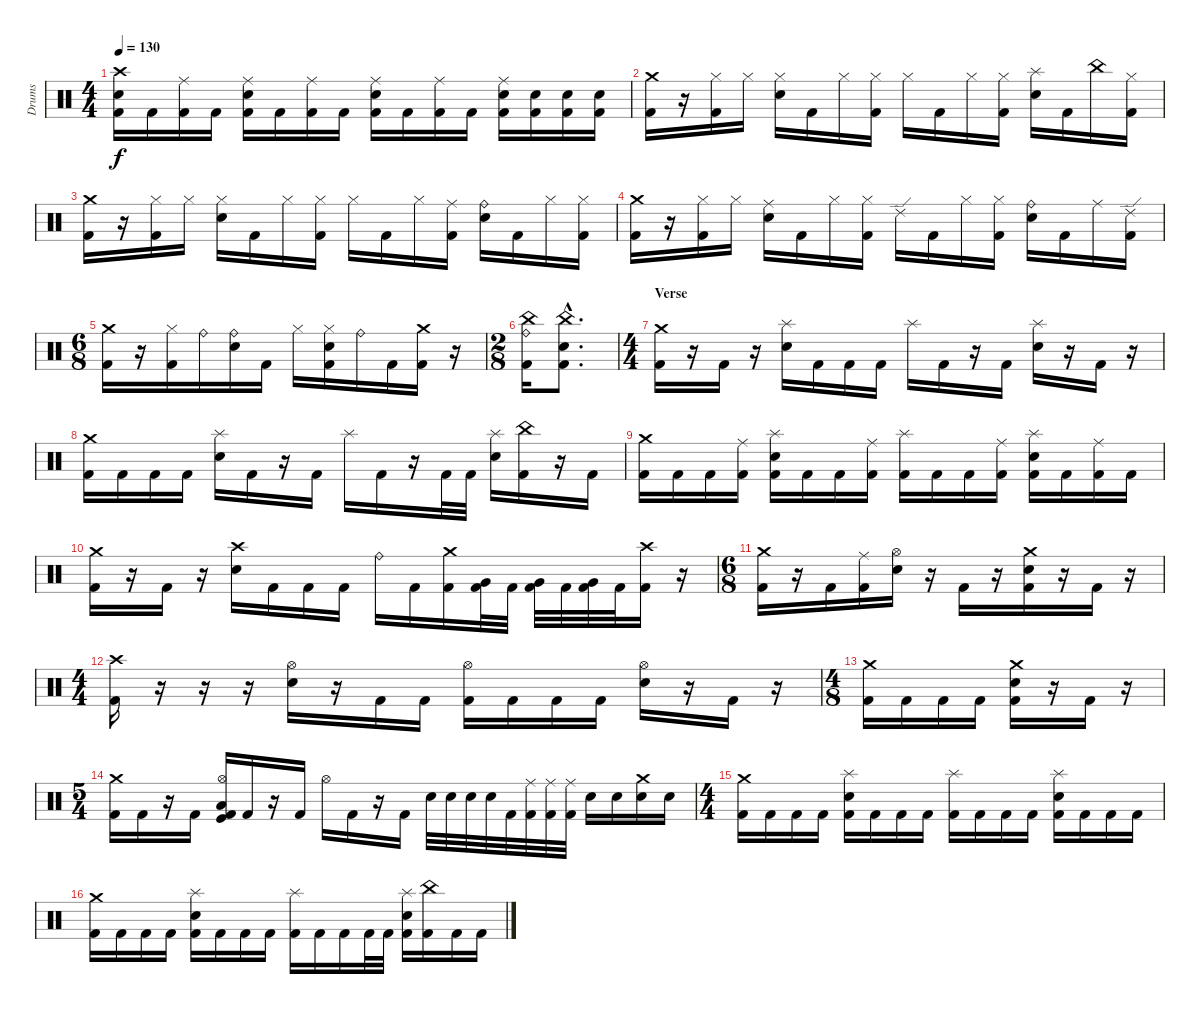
\track ("Drums" "Drums") {instrument percussion}
\staff {score}
\articulation defaults
\ts (4 4)
\tempo 130
\clef neutral
\ks c
("Crash high (hit)" "Electric Snare (hit)" "Kick (hit) 2").16{dy f} "Kick (hit) 2".16 ("Ride (middle)" "Kick (hit) 2").16 "Kick (hit) 2".16 ("Ride (middle)" "Electric Snare (hit)" "Kick (hit) 2").16 "Kick (hit) 2".16 ("Ride (middle)" "Kick (hit) 2").16 "Kick (hit) 2".16 ("Ride (middle)" "Electric Snare (hit)" "Kick (hit) 2").16 "Kick (hit) 2".16 ("Ride (middle)" "Kick (hit) 2").16 "Kick (hit) 2".16 ("Ride (middle)" "Electric Snare (hit)" "Kick (hit) 2").16 ("Electric Snare (hit)" "Kick (hit) 2").16 ("Electric Snare (hit)" "Kick (hit) 2").16 ("Electric Snare (hit)" "Kick (hit) 2").16 |
("Crash medium (hit)" "Kick (hit) 2").16 r.16 ("Hi-Hat (closed)" "Kick (hit) 2").16 "Hi-Hat (closed)".16 ("Hi-Hat (closed)" "Electric Snare (hit)").16 "Kick (hit) 2".16 "Hi-Hat (closed)".16 ("Hi-Hat (closed)" "Kick (hit) 2").16 "Hi-Hat (closed)".16 "Kick (hit) 2".16 "Hi-Hat (closed)".16 ("Hi-Hat (closed)" "Kick (hit) 2").16 ("Splash (hit)" "Electric Snare (hit)").16 "Kick (hit) 2".16 "China (hit)".16 ("Hi-Hat (closed)" "Kick (hit) 2").16 |
("Crash medium (hit)" "Kick (hit) 2").16 r.16 ("Hi-Hat (closed)" "Kick (hit) 2").16 "Hi-Hat (closed)".16 ("Hi-Hat (closed)" "Electric Snare (hit)").16 "Kick (hit) 2".16 "Hi-Hat (closed)".16 ("Hi-Hat (closed)" "Kick (hit) 2").16 "Hi-Hat (closed)".16 "Kick (hit) 2".16 "Hi-Hat (closed)".16 ("Ride (middle)" "Kick (hit) 2").16 ("Ride (bell)" "Electric Snare (hit)").16 "Kick (hit) 2".16 "Hi-Hat (closed)".16 ("Hi-Hat (closed)" "Kick (hit) 2").16 |
("Crash medium (hit)" "Kick (hit) 2").16 r.16 ("Hi-Hat (closed)" "Kick (hit) 2").16 "Hi-Hat (closed)".16 ("Ride (middle)" "Electric Snare (hit)").16 "Kick (hit) 2".16 "Hi-Hat (closed)".16 ("Hi-Hat (closed)" "Kick (hit) 2").16 "Ride (edge) 2".16 "Kick (hit) 2".16 "Hi-Hat (closed)".16 ("Hi-Hat (closed)" "Kick (hit) 2").16 ("Ride (bell)" "Electric Snare (hit)").16 "Kick (hit) 2".16 "Ride (middle)".16 ("Ride (edge) 2" "Kick (hit) 2").16 |
\ts (6 8)
("Crash medium (hit)" "Kick (hit) 2").16 r.16 ("Hi-Hat (closed)" "Kick (hit) 2").16 "Ride (bell)".16 ("Ride (bell)" "Electric Snare (hit)").16 "Kick (hit) 2".16 "Hi-Hat (closed)".16 ("Hi-Hat (closed)" "Electric Snare (hit)" "Kick (hit) 2").16 "Ride (bell)".16 "Kick (hit) 2".16 ("Crash medium (hit)" "Kick (hit) 2").16 r.16 |
\ts (2 8)
("China (hit)" "Ride (bell)" "Kick (hit) 2").16 ("China (hit)"{hac} "Electric Snare (hit)"{hac} "Kick (hit) 2"{hac}).8{d} |
\ts (4 4)
\section ("" "Verse")
("Crash medium (hit)" "Kick (hit) 2").16 r.16 "Kick (hit) 2".16 r.16 ("Splash (hit)" "Electric Snare (hit)").16 "Kick (hit) 2".16 "Kick (hit) 2".16 "Kick (hit) 2".16 "Splash (hit)".16 "Kick (hit) 2".16 r.16 "Kick (hit) 2".16 ("Splash (hit)" "Electric Snare (hit)").16 r.16 "Kick (hit) 2".16 r.16 |
("Crash medium (hit)" "Kick (hit) 2").16 "Kick (hit) 2".16 "Kick (hit) 2".16 "Kick (hit) 2".16 ("Splash (hit)" "Electric Snare (hit)").16 "Kick (hit) 2".16 r.16 "Kick (hit) 2".16 "Splash (hit)".16 "Kick (hit) 2".16 r.16 "Kick (hit) 2".32 "Kick (hit) 2".32 ("Splash (hit)" "Electric Snare (hit)").16 ("China (hit)" "Kick (hit) 2").16 r.16 "Kick (hit) 2".16 |
("Crash medium (hit)" "Kick (hit) 2").16 "Kick (hit) 2".16 "Kick (hit) 2".16 ("Ride (middle)" "Kick (hit) 2").16 ("Splash (hit)" "Electric Snare (hit)" "Kick (hit) 2").16 "Kick (hit) 2".16 "Kick (hit) 2".16 ("Ride (middle)" "Kick (hit) 2").16 ("Splash (hit)" "Kick (hit) 2").16 "Kick (hit) 2".16 "Kick (hit) 2".16 ("Ride (middle)" "Kick (hit) 2").16 ("Splash (hit)" "Electric Snare (hit)" "Kick (hit) 2").16 "Kick (hit) 2".16 ("Ride (middle)" "Kick (hit) 2").16 "Kick (hit) 2".16 |
("Crash medium (hit)" "Kick (hit) 2").16 r.16 "Kick (hit) 2".16 r.16 ("Crash high (hit)" "Electric Snare (hit)").16 "Kick (hit) 2".16 "Kick (hit) 2".16 "Kick (hit) 2".16 "Ride (bell)".16 "Kick (hit) 2".16 ("Crash medium (hit)" "Kick (hit) 2").16 ("Very Low Tom (hit)" "Kick (hit) 2").32 "Kick (hit) 2".32 ("Very Low Tom (hit)" "Kick (hit) 2").32 "Kick (hit) 2".32 ("Very Low Tom (hit)" "Kick (hit) 2").32 "Kick (hit) 2".32 ("Crash high (hit)" "Kick (hit) 2").16 r.16 |
\ts (6 8)
("Crash medium (hit)" "Kick (hit) 2").16 r.16 "Kick (hit) 2".16 ("Ride (middle)" "Kick (hit) 2").16 ("Hi-Hat (open)" "Electric Snare (hit)").16 r.16 "Kick (hit) 2".16 r.16 ("Crash medium (hit)" "Electric Snare (hit)" "Kick (hit) 2").16 r.16 "Kick (hit) 2".16 r.16 |
\ts (4 4)
("Crash high (hit)" "Kick (hit) 2").16 r.16 r.16 r.16 ("Hi-Hat (open)" "Electric Snare (hit)").16 r.16 "Kick (hit) 2".16 "Kick (hit) 2".16 ("Hi-Hat (open)" "Kick (hit) 2").16 "Kick (hit) 2".16 "Kick (hit) 2".16 "Kick (hit) 2".16 ("Hi-Hat (open)" "Electric Snare (hit)").16 r.16 "Kick (hit) 2".16 r.16 |
\ts (4 8)
("Crash medium (hit)" "Kick (hit) 2").16 "Kick (hit) 2".16 "Kick (hit) 2".16 "Kick (hit) 2".16 ("Crash medium (hit)" "Electric Snare (hit)" "Kick (hit) 2").16 r.16 "Kick (hit) 2".16 r.16 |
\ts (5 4)
("Crash medium (hit)" "Kick (hit) 2").16 "Kick (hit) 2".16 r.16 "Kick (hit) 2".16 ("Hi-Hat (open)" "Low Floor Tom (hit)" "Kick (hit) 2" "Kick (hit)").16 "Kick (hit) 2".16 r.16 "Kick (hit) 2".16 "Hi-Hat (open)".16 "Kick (hit) 2".16 r.16 "Kick (hit) 2".16 "Electric Snare (hit)".32 "Electric Snare (hit)".32 "Electric Snare (hit)".32 "Electric Snare (hit)".32 "Kick (hit) 2".32 ("Ride (middle)" "Kick (hit) 2").32 ("Ride (middle)" "Kick (hit) 2").32 ("Ride (middle)" "Kick (hit) 2").32 "Electric Snare (hit)".16 "Electric Snare (hit)".16 ("Crash medium (hit)" "Electric Snare (hit)").16 "Electric Snare (hit)".16 |
\ts (4 4)
("Crash medium (hit)" "Kick (hit) 2").16 "Kick (hit) 2".16 "Kick (hit) 2".16 "Kick (hit) 2".16 ("Splash (hit)" "Electric Snare (hit)" "Kick (hit) 2").16 "Kick (hit) 2".16 "Kick (hit) 2".16 "Kick (hit) 2".16 ("Splash (hit)" "Kick (hit) 2").16 "Kick (hit) 2".16 "Kick (hit) 2".16 "Kick (hit) 2".16 ("Splash (hit)" "Electric Snare (hit)" "Kick (hit) 2").16 "Kick (hit) 2".16 "Kick (hit) 2".16 "Kick (hit) 2".16 |
("Crash medium (hit)" "Kick (hit) 2").16 "Kick (hit) 2".16 "Kick (hit) 2".16 "Kick (hit) 2".16 ("Splash (hit)" "Electric Snare (hit)" "Kick (hit) 2").16 "Kick (hit) 2".16 "Kick (hit) 2".16 "Kick (hit) 2".16 ("Splash (hit)" "Kick (hit) 2").16 "Kick (hit) 2".16 "Kick (hit) 2".16 "Kick (hit) 2".32 "Kick (hit) 2".32 ("Splash (hit)" "Electric Snare (hit)" "Kick (hit) 2").16 ("China (hit)" "Kick (hit) 2").16 "Kick (hit) 2".16 "Kick (hit) 2".16
